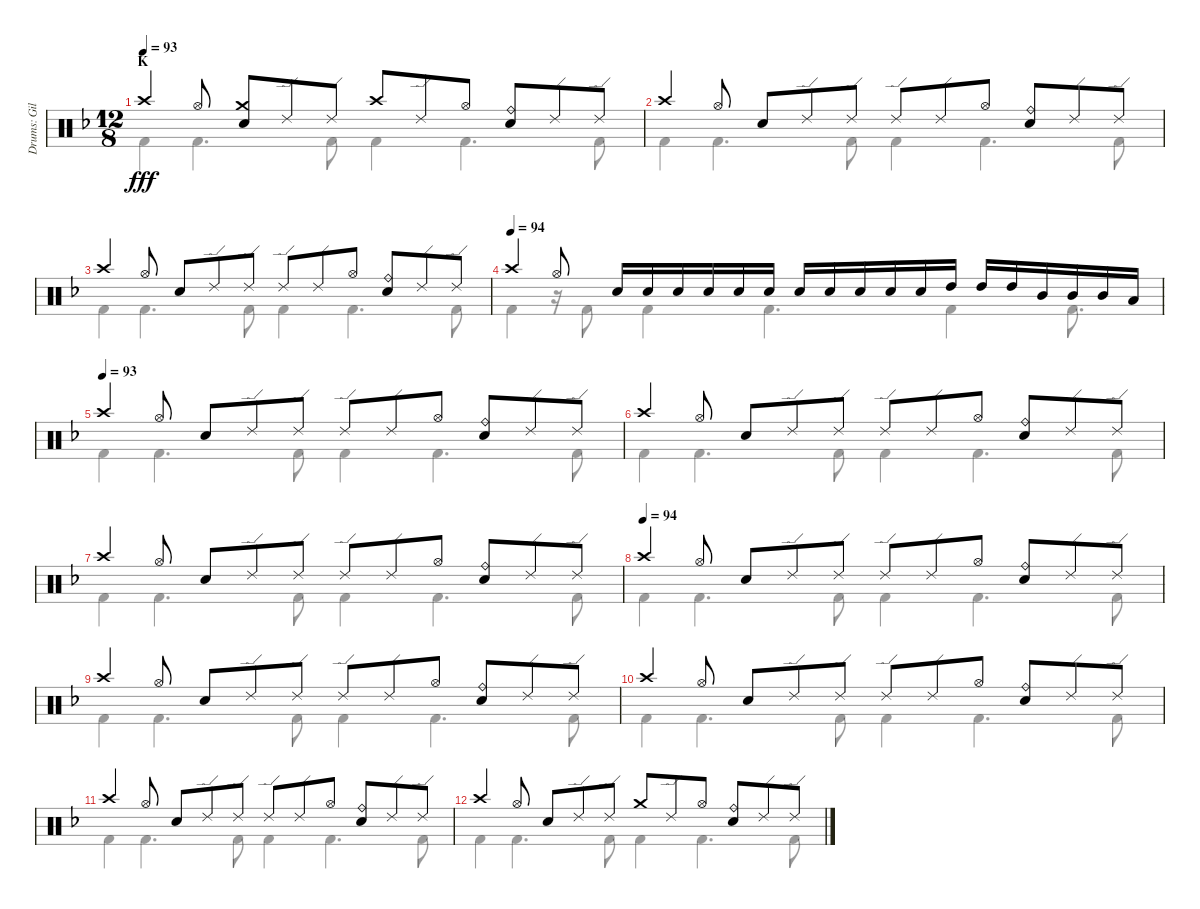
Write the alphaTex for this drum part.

\track ("Drums: Gil" "Drums: Gil") {instrument percussion}
\staff {score}
\articulation defaults
\voice
\ts (12 8)
\section ("" "K")
\tempo 93
\clef neutral
\ks f "Crash high (hit)".4{dy fff} "Hi-Hat (open)".8
("Crash medium (hit)" "Snare (hit) 2").8 "Ride (edge) 2".8 "Ride (edge) 2".8 "Crash high (hit)".8 "Ride (edge) 2".8 "Hi-Hat (open)".8 ("Ride (bell)" "Snare (hit) 2").8 "Ride (edge) 2".8 "Ride (edge) 2".8 |
"Crash high (hit)".4 "Hi-Hat (open)".8 "Snare (hit) 2".8 "Ride (edge) 2".8 "Ride (edge) 2".8 "Ride (edge) 2".8 "Ride (edge) 2".8 "Hi-Hat (open)".8 ("Ride (bell)" "Snare (hit) 2").8 "Ride (edge) 2".8 "Ride (edge) 2".8 |
"Crash high (hit)".4 "Hi-Hat (open)".8 "Snare (hit) 2".8 "Ride (edge) 2".8 "Ride (edge) 2".8 "Ride (edge) 2".8 "Ride (edge) 2".8 "Hi-Hat (open)".8 ("Ride (bell)" "Snare (hit) 2").8 "Ride (edge) 2".8 "Ride (edge) 2".8 |
\tempo (94)
"Crash high (hit)".4 "Hi-Hat (open)".8 "Snare (hit) 2".16 "Snare (hit) 2".16 "Snare (hit) 2".16 "Snare (hit) 2".16 "Snare (hit) 2".16 "Snare (hit) 2".16 "Snare (hit) 2".16 "Snare (hit) 2".16 "Electric Snare (hit)".16 "Electric Snare (hit)".16 "Electric Snare (hit)".16 "High Tom (hit)".16 "High Tom (hit)".16 "High Tom (hit)".16 "Mid Tom (hit)".16 "Mid Tom (hit)".16 "Mid Tom (hit)".16 "Low Tom (hit)".16 |
\tempo (93)
"Crash high (hit)".4 "Hi-Hat (open)".8 "Snare (hit) 2".8 "Ride (edge) 2".8 "Ride (edge) 2".8 "Ride (edge) 2".8 "Ride (edge) 2".8 "Hi-Hat (open)".8 ("Ride (bell)" "Snare (hit) 2").8 "Ride (edge) 2".8 "Ride (edge) 2".8 |
"Crash high (hit)".4 "Hi-Hat (open)".8 "Snare (hit) 2".8 "Ride (edge) 2".8 "Ride (edge) 2".8 "Ride (edge) 2".8 "Ride (edge) 2".8 "Hi-Hat (open)".8 ("Ride (bell)" "Snare (hit) 2").8 "Ride (edge) 2".8 "Ride (edge) 2".8 |
"Crash high (hit)".4 "Hi-Hat (open)".8 "Snare (hit) 2".8 "Ride (edge) 2".8 "Ride (edge) 2".8 "Ride (edge) 2".8 "Ride (edge) 2".8 "Hi-Hat (open)".8 ("Ride (bell)" "Snare (hit) 2").8 "Ride (edge) 2".8 "Ride (edge) 2".8 |
\tempo (94)
"Crash high (hit)".4 "Hi-Hat (open)".8 "Snare (hit) 2".8 "Ride (edge) 2".8 "Ride (edge) 2".8 "Ride (edge) 2".8 "Ride (edge) 2".8 "Hi-Hat (open)".8 ("Ride (bell)" "Snare (hit) 2").8 "Ride (edge) 2".8 "Ride (edge) 2".8 |
"Crash high (hit)".4 "Hi-Hat (open)".8 "Snare (hit) 2".8 "Ride (edge) 2".8 "Ride (edge) 2".8 "Ride (edge) 2".8 "Ride (edge) 2".8 "Hi-Hat (open)".8 ("Ride (bell)" "Snare (hit) 2").8 "Ride (edge) 2".8 "Ride (edge) 2".8 |
"Crash high (hit)".4 "Hi-Hat (open)".8 "Snare (hit) 2".8 "Ride (edge) 2".8 "Ride (edge) 2".8 "Ride (edge) 2".8{volume 0} "Ride (edge) 2".8 "Hi-Hat (open)".8 ("Ride (bell)" "Snare (hit) 2").8 "Ride (edge) 2".8 "Ride (edge) 2".8 |
"Crash high (hit)".4 "Hi-Hat (open)".8 "Snare (hit) 2".8 "Ride (edge) 2".8 "Ride (edge) 2".8 "Ride (edge) 2".8 "Ride (edge) 2".8 "Hi-Hat (open)".8 ("Ride (bell)" "Snare (hit) 2").8 "Ride (edge) 2".8 "Ride (edge) 2".8 |
"Crash high (hit)".4 "Hi-Hat (open)".8 "Snare (hit) 2".8 "Ride (edge) 2".8 "Ride (edge) 2".8 "Crash medium (hit)".8 "Ride (edge) 2".8 "Hi-Hat (open)".8 ("Ride (bell)" "Snare (hit) 2").8 "Ride (edge) 2".8 "Ride (edge) 2".8
\voice
\clef neutral
\ottava regular
\simile none
\ks f "Kick (hit) 2".4{dy fff} "Kick (hit) 2".4{d} "Kick (hit) 2".8 "Kick (hit) 2".4 "Kick (hit) 2".4{d} "Kick (hit) 2".8
|
"Kick (hit) 2".4 "Kick (hit) 2".4{d} "Kick (hit) 2".8 "Kick (hit) 2".4 "Kick (hit) 2".4{d} "Kick (hit) 2".8 |
"Kick (hit) 2".4 "Kick (hit) 2".4{d} "Kick (hit) 2".8 "Kick (hit) 2".4 "Kick (hit) 2".4{d} "Kick (hit) 2".8 |
"Kick (hit) 2".4 r.16 "Kick (hit) 2".8 "Kick (hit) 2".4 "Kick (hit) 2".4{d} "Kick (hit) 2".4 "Kick (hit) 2".8{d} |
"Kick (hit) 2".4 "Kick (hit) 2".4{d} "Kick (hit) 2".8 "Kick (hit) 2".4 "Kick (hit) 2".4{d} "Kick (hit) 2".8 |
"Kick (hit) 2".4 "Kick (hit) 2".4{d} "Kick (hit) 2".8 "Kick (hit) 2".4 "Kick (hit) 2".4{d} "Kick (hit) 2".8 |
"Kick (hit) 2".4 "Kick (hit) 2".4{d} "Kick (hit) 2".8 "Kick (hit) 2".4 "Kick (hit) 2".4{d} "Kick (hit) 2".8 |
"Kick (hit) 2".4 "Kick (hit) 2".4{d} "Kick (hit) 2".8 "Kick (hit) 2".4 "Kick (hit) 2".4{d} "Kick (hit) 2".8 |
"Kick (hit) 2".4 "Kick (hit) 2".4{d} "Kick (hit) 2".8 "Kick (hit) 2".4 "Kick (hit) 2".4{d} "Kick (hit) 2".8 |
"Kick (hit) 2".4 "Kick (hit) 2".4{d} "Kick (hit) 2".8 "Kick (hit) 2".4 "Kick (hit) 2".4{d} "Kick (hit) 2".8 |
"Kick (hit) 2".4 "Kick (hit) 2".4{d} "Kick (hit) 2".8 "Kick (hit) 2".4 "Kick (hit) 2".4{d} "Kick (hit) 2".8 |
"Kick (hit) 2".4 "Kick (hit) 2".4{d} "Kick (hit) 2".8 "Kick (hit) 2".4 "Kick (hit) 2".4{d} "Kick (hit) 2".8
